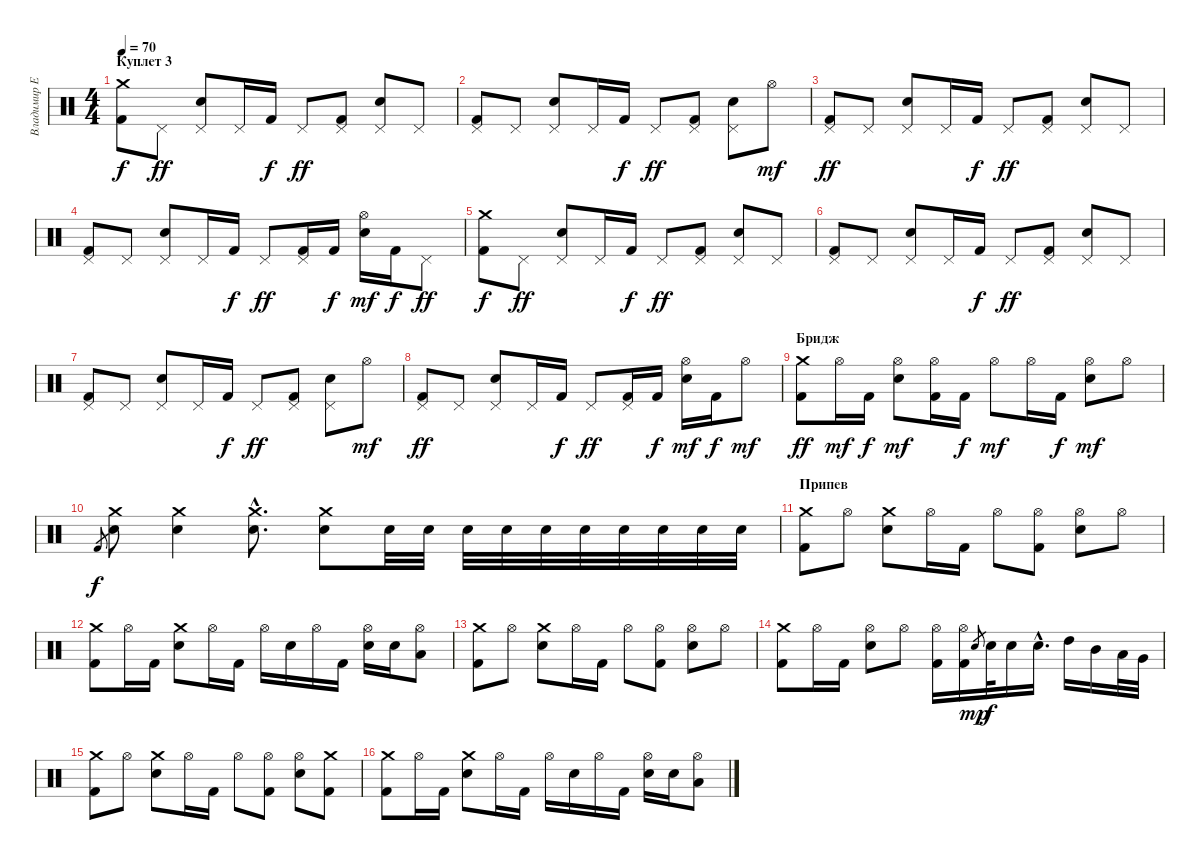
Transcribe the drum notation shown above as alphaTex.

\track ("Владимир Ермаков" "Владимир Е") {instrument percussion}
\staff {score}
\articulation defaults
\ts (4 4)
\section ("" "Куплет 3")
\tempo 70
\clef neutral
\ks c
("Crash medium (hit)" "Kick (hit) 2").8{dy f} "Pedal Hi-Hat (hit)".8{dy ff} ("Pedal Hi-Hat (hit)" "Electric Snare (hit)").8 "Pedal Hi-Hat (hit)".16 "Kick (hit) 2".16{dy f} "Pedal Hi-Hat (hit)".8{dy ff} ("Pedal Hi-Hat (hit)" "Kick (hit) 2").8 ("Pedal Hi-Hat (hit)" "Electric Snare (hit)").8 "Pedal Hi-Hat (hit)".8 |
("Pedal Hi-Hat (hit)" "Kick (hit) 2").8 "Pedal Hi-Hat (hit)".8 ("Pedal Hi-Hat (hit)" "Electric Snare (hit)").8 "Pedal Hi-Hat (hit)".16 "Kick (hit) 2".16{dy f} "Pedal Hi-Hat (hit)".8{dy ff} ("Pedal Hi-Hat (hit)" "Kick (hit) 2").8 ("Pedal Hi-Hat (hit)" "Electric Snare (hit)").8 "Hi-Hat (open)".8{dy mf} |
("Pedal Hi-Hat (hit)" "Kick (hit) 2").8{dy ff} "Pedal Hi-Hat (hit)".8 ("Pedal Hi-Hat (hit)" "Electric Snare (hit)").8 "Pedal Hi-Hat (hit)".16 "Kick (hit) 2".16{dy f} "Pedal Hi-Hat (hit)".8{dy ff} ("Pedal Hi-Hat (hit)" "Kick (hit) 2").8 ("Pedal Hi-Hat (hit)" "Electric Snare (hit)").8 "Pedal Hi-Hat (hit)".8 |
("Pedal Hi-Hat (hit)" "Kick (hit) 2").8 "Pedal Hi-Hat (hit)".8 ("Pedal Hi-Hat (hit)" "Electric Snare (hit)").8 "Pedal Hi-Hat (hit)".16 "Kick (hit) 2".16{dy f} "Pedal Hi-Hat (hit)".8{dy ff} ("Pedal Hi-Hat (hit)" "Kick (hit) 2").16 "Kick (hit) 2".16{dy f} ("Hi-Hat (open)" "Electric Snare (hit)").16{dy mf} "Kick (hit) 2".16{dy f} "Pedal Hi-Hat (hit)".8{dy ff} |
("Crash medium (hit)" "Kick (hit) 2").8{dy f} "Pedal Hi-Hat (hit)".8{dy ff} ("Pedal Hi-Hat (hit)" "Electric Snare (hit)").8 "Pedal Hi-Hat (hit)".16 "Kick (hit) 2".16{dy f} "Pedal Hi-Hat (hit)".8{dy ff} ("Pedal Hi-Hat (hit)" "Kick (hit) 2").8 ("Pedal Hi-Hat (hit)" "Electric Snare (hit)").8 "Pedal Hi-Hat (hit)".8 |
("Pedal Hi-Hat (hit)" "Kick (hit) 2").8 "Pedal Hi-Hat (hit)".8 ("Pedal Hi-Hat (hit)" "Electric Snare (hit)").8 "Pedal Hi-Hat (hit)".16 "Kick (hit) 2".16{dy f} "Pedal Hi-Hat (hit)".8{dy ff} ("Pedal Hi-Hat (hit)" "Kick (hit) 2").8 ("Pedal Hi-Hat (hit)" "Electric Snare (hit)").8 "Pedal Hi-Hat (hit)".8 |
("Pedal Hi-Hat (hit)" "Kick (hit) 2").8 "Pedal Hi-Hat (hit)".8 ("Pedal Hi-Hat (hit)" "Electric Snare (hit)").8 "Pedal Hi-Hat (hit)".16 "Kick (hit) 2".16{dy f} "Pedal Hi-Hat (hit)".8{dy ff} ("Pedal Hi-Hat (hit)" "Kick (hit) 2").8 ("Pedal Hi-Hat (hit)" "Electric Snare (hit)").8 "Hi-Hat (open)".8{dy mf} |
("Pedal Hi-Hat (hit)" "Kick (hit) 2").8{dy ff} "Pedal Hi-Hat (hit)".8 ("Pedal Hi-Hat (hit)" "Electric Snare (hit)").8 "Pedal Hi-Hat (hit)".16 "Kick (hit) 2".16{dy f} "Pedal Hi-Hat (hit)".8{dy ff} ("Pedal Hi-Hat (hit)" "Kick (hit) 2").16 "Kick (hit) 2".16{dy f} ("Hi-Hat (open)" "Electric Snare (hit)").16{dy mf} "Kick (hit) 2".16{dy f} "Hi-Hat (open)".8{dy mf} |
\section ("" "Бридж")
("Crash medium (hit)" "Kick (hit) 2").8{dy ff} "Hi-Hat (open)".16{dy mf} "Kick (hit) 2".16{dy f} ("Hi-Hat (open)" "Electric Snare (hit)").8{dy mf} ("Hi-Hat (open)" "Kick (hit) 2").16 "Kick (hit) 2".16{dy f} "Hi-Hat (open)".8{dy mf} "Hi-Hat (open)".16 "Kick (hit) 2".16{dy f} ("Hi-Hat (open)" "Electric Snare (hit)").8{dy mf} "Hi-Hat (open)".8 |
"Kick (hit) 2".8{gr dy f} ("Electric Snare (hit)" "Crash medium (hit)").8 ("Electric Snare (hit)" "Crash medium (hit)").4 ("Electric Snare (hit)"{hac} "Crash medium (hit)"{hac}).8{d} ("Electric Snare (hit)" "Crash medium (hit)").8 "Electric Snare (hit)".32 "Electric Snare (hit)".32 "Electric Snare (hit)".32 "Electric Snare (hit)".32 "Electric Snare (hit)".32 "Electric Snare (hit)".32 "Electric Snare (hit)".32 "Electric Snare (hit)".32 "Electric Snare (hit)".32 "Electric Snare (hit)".32 |
\section ("" "Припев")
("Crash medium (hit)" "Kick (hit) 2").8 "Hi-Hat (open)".8 ("Crash medium (hit)" "Electric Snare (hit)").8 "Hi-Hat (open)".16 "Kick (hit) 2".16 "Hi-Hat (open)".8 ("Hi-Hat (open)" "Kick (hit) 2").8 ("Hi-Hat (open)" "Electric Snare (hit)").8 "Hi-Hat (open)".8 |
("Crash medium (hit)" "Kick (hit) 2").8 "Hi-Hat (open)".16 "Kick (hit) 2".16 ("Crash medium (hit)" "Electric Snare (hit)").8 "Hi-Hat (open)".16 "Kick (hit) 2".16 "Hi-Hat (open)".16 "Electric Snare (hit)".16 "Hi-Hat (open)".16 "Kick (hit) 2".16 ("Hi-Hat (open)" "Electric Snare (hit)").16 "Electric Snare (hit)".16 ("Hi-Hat (open)" "Low Tom (hit)").8 |
("Crash medium (hit)" "Kick (hit) 2").8 "Hi-Hat (open)".8 ("Crash medium (hit)" "Electric Snare (hit)").8 "Hi-Hat (open)".16 "Kick (hit) 2".16 "Hi-Hat (open)".8 ("Hi-Hat (open)" "Kick (hit) 2").8 ("Hi-Hat (open)" "Electric Snare (hit)").8 "Hi-Hat (open)".8 |
("Crash medium (hit)" "Kick (hit) 2").8 "Hi-Hat (open)".16 "Kick (hit) 2".16 ("Hi-Hat (open)" "Electric Snare (hit)").8 "Hi-Hat (open)".8 ("Hi-Hat (open)" "Kick (hit) 2").16 ("Hi-Hat (open)" "Kick (hit) 2").16 "Electric Snare (hit)".8{gr dy mp} "Electric Snare (hit)".32{dy f} "Electric Snare (hit)".16 "Electric Snare (hit)"{hac}.16{d} "High Tom (hit)".16 "Mid Tom (hit)".16 "Low Tom (hit)".32 "Very Low Tom (hit)".32 |
("Crash medium (hit)" "Kick (hit) 2").8 "Hi-Hat (open)".8 ("Crash medium (hit)" "Electric Snare (hit)").8 "Hi-Hat (open)".16 "Kick (hit) 2".16 "Hi-Hat (open)".8 ("Hi-Hat (open)" "Kick (hit) 2").8 ("Hi-Hat (open)" "Electric Snare (hit)").8 ("Crash medium (hit)" "Kick (hit) 2").8 |
("Crash medium (hit)" "Kick (hit) 2").8 "Hi-Hat (open)".16 "Kick (hit) 2".16 ("Crash medium (hit)" "Electric Snare (hit)").8 "Hi-Hat (open)".16 "Kick (hit) 2".16 "Hi-Hat (open)".16 "Electric Snare (hit)".16 "Hi-Hat (open)".16 "Kick (hit) 2".16 ("Hi-Hat (open)" "Electric Snare (hit)").16 "Electric Snare (hit)".16 ("Hi-Hat (open)" "Low Tom (hit)").8
